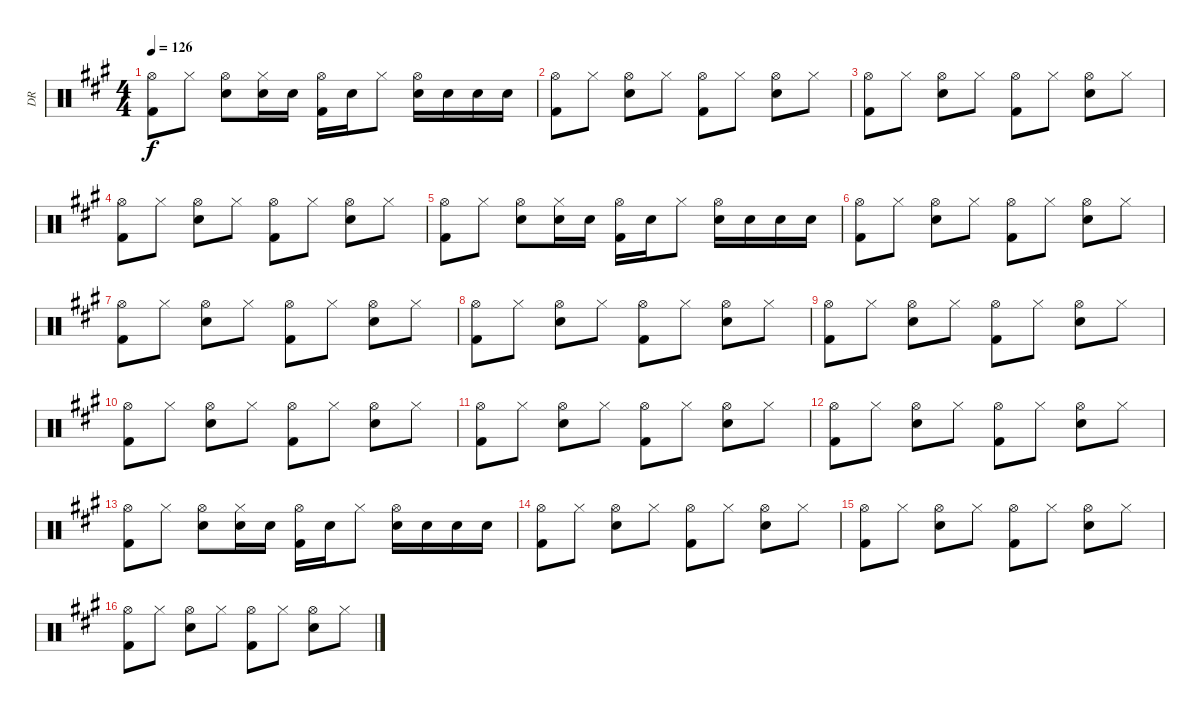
\track ("DR" "DR") {instrument percussion}
\staff {score}
\articulation defaults
\ts (4 4)
\tempo 126
\clef neutral
\ks f#minor
("Hi-Hat (open)" "Kick (hit) 2").8{dy f} "Hi-Hat (closed)".8 ("Hi-Hat (open)" "Electric Snare (hit)").8 ("Hi-Hat (closed)" "Electric Snare (hit)").16 "Electric Snare (hit)".16 ("Hi-Hat (open)" "Kick (hit) 2").16 "Electric Snare (hit)".16 "Hi-Hat (closed)".8 ("Hi-Hat (open)" "Electric Snare (hit)").16 "Electric Snare (hit)".16 "Electric Snare (hit)".16 "Electric Snare (hit)".16 |
("Hi-Hat (open)" "Kick (hit) 2").8 "Hi-Hat (closed)".8 ("Hi-Hat (open)" "Electric Snare (hit)").8 "Hi-Hat (closed)".8 ("Hi-Hat (open)" "Kick (hit) 2").8 "Hi-Hat (closed)".8 ("Hi-Hat (open)" "Electric Snare (hit)").8 "Hi-Hat (closed)".8 |
("Hi-Hat (open)" "Kick (hit) 2").8 "Hi-Hat (closed)".8 ("Hi-Hat (open)" "Electric Snare (hit)").8 "Hi-Hat (closed)".8 ("Hi-Hat (open)" "Kick (hit) 2").8 "Hi-Hat (closed)".8 ("Hi-Hat (open)" "Electric Snare (hit)").8 "Hi-Hat (closed)".8 |
("Hi-Hat (open)" "Kick (hit) 2").8 "Hi-Hat (closed)".8 ("Hi-Hat (open)" "Electric Snare (hit)").8 "Hi-Hat (closed)".8 ("Hi-Hat (open)" "Kick (hit) 2").8 "Hi-Hat (closed)".8 ("Hi-Hat (open)" "Electric Snare (hit)").8 "Hi-Hat (closed)".8 |
("Hi-Hat (open)" "Kick (hit) 2").8 "Hi-Hat (closed)".8 ("Hi-Hat (open)" "Electric Snare (hit)").8 ("Hi-Hat (closed)" "Electric Snare (hit)").16 "Electric Snare (hit)".16 ("Hi-Hat (open)" "Kick (hit) 2").16 "Electric Snare (hit)".16 "Hi-Hat (closed)".8 ("Hi-Hat (open)" "Electric Snare (hit)").16 "Electric Snare (hit)".16 "Electric Snare (hit)".16 "Electric Snare (hit)".16 |
("Hi-Hat (open)" "Kick (hit) 2").8 "Hi-Hat (closed)".8 ("Hi-Hat (open)" "Electric Snare (hit)").8 "Hi-Hat (closed)".8 ("Hi-Hat (open)" "Kick (hit) 2").8 "Hi-Hat (closed)".8 ("Hi-Hat (open)" "Electric Snare (hit)").8 "Hi-Hat (closed)".8 |
("Hi-Hat (open)" "Kick (hit) 2").8 "Hi-Hat (closed)".8 ("Hi-Hat (open)" "Electric Snare (hit)").8 "Hi-Hat (closed)".8 ("Hi-Hat (open)" "Kick (hit) 2").8 "Hi-Hat (closed)".8 ("Hi-Hat (open)" "Electric Snare (hit)").8 "Hi-Hat (closed)".8 |
("Hi-Hat (open)" "Kick (hit) 2").8 "Hi-Hat (closed)".8 ("Hi-Hat (open)" "Electric Snare (hit)").8 "Hi-Hat (closed)".8 ("Hi-Hat (open)" "Kick (hit) 2").8 "Hi-Hat (closed)".8 ("Hi-Hat (open)" "Electric Snare (hit)").8 "Hi-Hat (closed)".8 |
("Hi-Hat (open)" "Kick (hit) 2").8 "Hi-Hat (closed)".8 ("Hi-Hat (open)" "Electric Snare (hit)").8 "Hi-Hat (closed)".8 ("Hi-Hat (open)" "Kick (hit) 2").8 "Hi-Hat (closed)".8 ("Hi-Hat (open)" "Electric Snare (hit)").8 "Hi-Hat (closed)".8 |
("Hi-Hat (open)" "Kick (hit) 2").8 "Hi-Hat (closed)".8 ("Hi-Hat (open)" "Electric Snare (hit)").8 "Hi-Hat (closed)".8 ("Hi-Hat (open)" "Kick (hit) 2").8 "Hi-Hat (closed)".8 ("Hi-Hat (open)" "Electric Snare (hit)").8 "Hi-Hat (closed)".8 |
("Hi-Hat (open)" "Kick (hit) 2").8 "Hi-Hat (closed)".8 ("Hi-Hat (open)" "Electric Snare (hit)").8 "Hi-Hat (closed)".8 ("Hi-Hat (open)" "Kick (hit) 2").8 "Hi-Hat (closed)".8 ("Hi-Hat (open)" "Electric Snare (hit)").8 "Hi-Hat (closed)".8 |
("Hi-Hat (open)" "Kick (hit) 2").8 "Hi-Hat (closed)".8 ("Hi-Hat (open)" "Electric Snare (hit)").8 "Hi-Hat (closed)".8 ("Hi-Hat (open)" "Kick (hit) 2").8 "Hi-Hat (closed)".8 ("Hi-Hat (open)" "Electric Snare (hit)").8 "Hi-Hat (closed)".8 |
("Hi-Hat (open)" "Kick (hit) 2").8 "Hi-Hat (closed)".8 ("Hi-Hat (open)" "Electric Snare (hit)").8 ("Hi-Hat (closed)" "Electric Snare (hit)").16 "Electric Snare (hit)".16 ("Hi-Hat (open)" "Kick (hit) 2").16 "Electric Snare (hit)".16 "Hi-Hat (closed)".8 ("Hi-Hat (open)" "Electric Snare (hit)").16 "Electric Snare (hit)".16 "Electric Snare (hit)".16 "Electric Snare (hit)".16 |
("Hi-Hat (open)" "Kick (hit) 2").8 "Hi-Hat (closed)".8 ("Hi-Hat (open)" "Electric Snare (hit)").8 "Hi-Hat (closed)".8 ("Hi-Hat (open)" "Kick (hit) 2").8 "Hi-Hat (closed)".8 ("Hi-Hat (open)" "Electric Snare (hit)").8 "Hi-Hat (closed)".8 |
("Hi-Hat (open)" "Kick (hit) 2").8 "Hi-Hat (closed)".8 ("Hi-Hat (open)" "Electric Snare (hit)").8 "Hi-Hat (closed)".8 ("Hi-Hat (open)" "Kick (hit) 2").8 "Hi-Hat (closed)".8 ("Hi-Hat (open)" "Electric Snare (hit)").8 "Hi-Hat (closed)".8 |
("Hi-Hat (open)" "Kick (hit) 2").8 "Hi-Hat (closed)".8 ("Hi-Hat (open)" "Electric Snare (hit)").8 "Hi-Hat (closed)".8 ("Hi-Hat (open)" "Kick (hit) 2").8 "Hi-Hat (closed)".8 ("Hi-Hat (open)" "Electric Snare (hit)").8 "Hi-Hat (closed)".8
